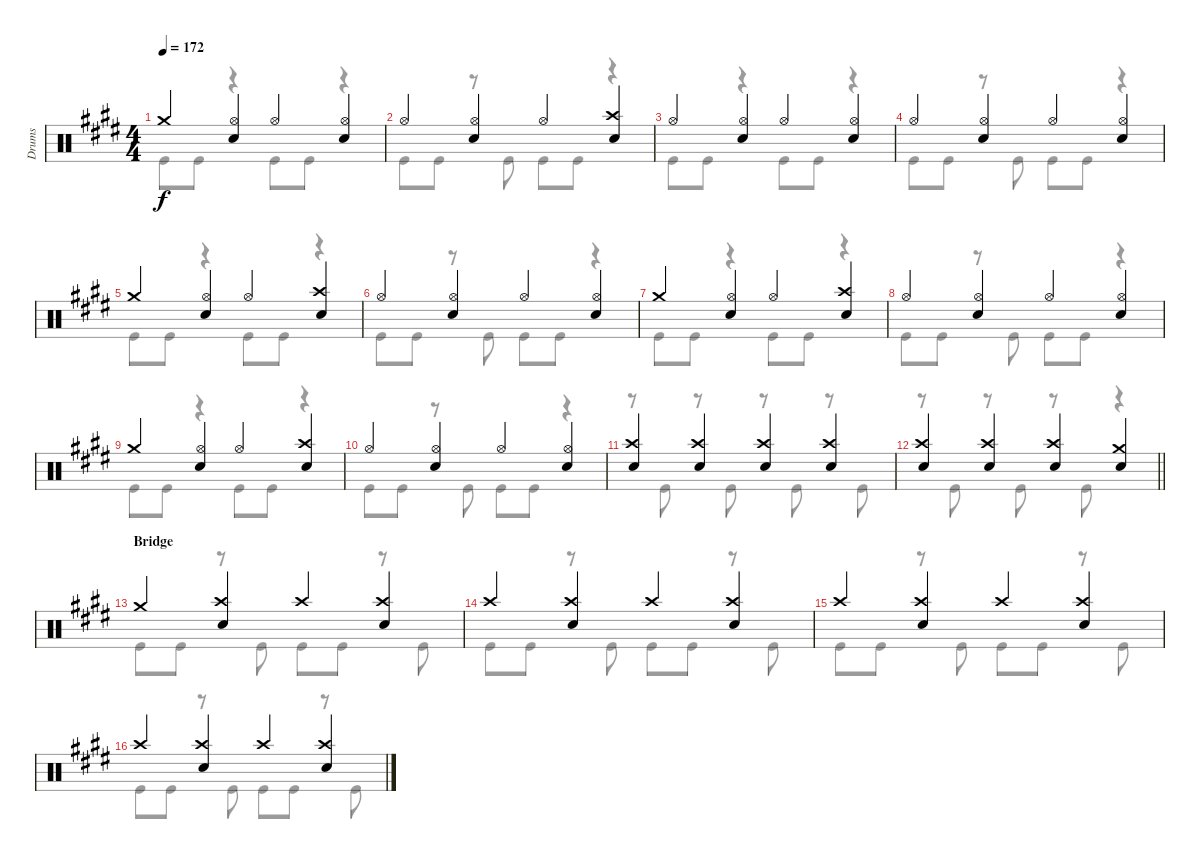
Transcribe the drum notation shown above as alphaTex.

\track ("Drums" "Drums") {instrument percussion}
\staff {score}
\articulation defaults
\voice
\ts (4 4)
\tempo 172
\clef neutral
\ks e "Crash medium (hit)".4{dy f}
("Hi-Hat (open)" "Electric Snare (hit)").4 "Hi-Hat (open)".4 ("Hi-Hat (open)" "Electric Snare (hit)").4 |
"Hi-Hat (open)".4 ("Hi-Hat (open)" "Electric Snare (hit)").4 "Hi-Hat (open)".4 ("Crash high (hit)" "Electric Snare (hit)").4 |
"Hi-Hat (open)".4 ("Hi-Hat (open)" "Electric Snare (hit)").4 "Hi-Hat (open)".4 ("Hi-Hat (open)" "Electric Snare (hit)").4 |
"Hi-Hat (open)".4 ("Hi-Hat (open)" "Electric Snare (hit)").4 "Hi-Hat (open)".4 ("Hi-Hat (open)" "Electric Snare (hit)").4 |
"Crash medium (hit)".4 ("Hi-Hat (open)" "Electric Snare (hit)").4 "Hi-Hat (open)".4 ("Crash high (hit)" "Electric Snare (hit)").4 |
"Hi-Hat (open)".4 ("Hi-Hat (open)" "Electric Snare (hit)").4 "Hi-Hat (open)".4 ("Hi-Hat (open)" "Electric Snare (hit)").4 |
"Crash medium (hit)".4 ("Hi-Hat (open)" "Electric Snare (hit)").4 "Hi-Hat (open)".4 ("Crash high (hit)" "Electric Snare (hit)").4 |
"Hi-Hat (open)".4 ("Hi-Hat (open)" "Electric Snare (hit)").4 "Hi-Hat (open)".4 ("Hi-Hat (open)" "Electric Snare (hit)").4 |
"Crash medium (hit)".4 ("Hi-Hat (open)" "Electric Snare (hit)").4 "Hi-Hat (open)".4 ("Crash high (hit)" "Electric Snare (hit)").4 |
"Hi-Hat (open)".4 ("Hi-Hat (open)" "Electric Snare (hit)").4 "Hi-Hat (open)".4 ("Hi-Hat (open)" "Electric Snare (hit)").4 |
("Crash high (hit)" "Electric Snare (hit)").4 ("Crash high (hit)" "Electric Snare (hit)").4 ("Crash high (hit)" "Electric Snare (hit)").4 ("Crash high (hit)" "Electric Snare (hit)").4 |
\barLineRight lightlight
("Crash high (hit)" "Electric Snare (hit)").4 ("Crash high (hit)" "Electric Snare (hit)").4 ("Crash high (hit)" "Electric Snare (hit)").4 ("Crash medium (hit)" "Electric Snare (hit)").4 |
\section ("" "Bridge")
"Crash medium (hit)".4 ("Crash high (hit)" "Electric Snare (hit)").4 "Crash high (hit)".4 ("Crash high (hit)" "Electric Snare (hit)").4 |
"Crash high (hit)".4 ("Crash high (hit)" "Electric Snare (hit)").4 "Crash high (hit)".4 ("Crash high (hit)" "Electric Snare (hit)").4 |
"Crash high (hit)".4 ("Crash high (hit)" "Electric Snare (hit)").4 "Crash high (hit)".4 ("Crash high (hit)" "Electric Snare (hit)").4 |
"Crash high (hit)".4 ("Crash high (hit)" "Electric Snare (hit)").4 "Crash high (hit)".4 ("Crash high (hit)" "Electric Snare (hit)").4
\voice
\clef neutral
\ottava regular
\simile none
\ks e "Kick (hit)".8{dy f} "Kick (hit)".8
r.4 "Kick (hit)".8 "Kick (hit)".8 r.4 |
"Kick (hit)".8 "Kick (hit)".8 r.8 "Kick (hit)".8 "Kick (hit)".8 "Kick (hit)".8 r.4 |
"Kick (hit)".8 "Kick (hit)".8 r.4 "Kick (hit)".8 "Kick (hit)".8 r.4 |
"Kick (hit)".8 "Kick (hit)".8 r.8 "Kick (hit)".8 "Kick (hit)".8 "Kick (hit)".8 r.4 |
"Kick (hit)".8 "Kick (hit)".8 r.4 "Kick (hit)".8 "Kick (hit)".8 r.4 |
"Kick (hit)".8 "Kick (hit)".8 r.8 "Kick (hit)".8 "Kick (hit)".8 "Kick (hit)".8 r.4 |
"Kick (hit)".8 "Kick (hit)".8 r.4 "Kick (hit)".8 "Kick (hit)".8 r.4 |
"Kick (hit)".8 "Kick (hit)".8 r.8 "Kick (hit)".8 "Kick (hit)".8 "Kick (hit)".8 r.4 |
"Kick (hit)".8 "Kick (hit)".8 r.4 "Kick (hit)".8 "Kick (hit)".8 r.4 |
"Kick (hit)".8 "Kick (hit)".8 r.8 "Kick (hit)".8 "Kick (hit)".8 "Kick (hit)".8 r.4 |
r.8 "Kick (hit)".8 r.8 "Kick (hit)".8 r.8 "Kick (hit)".8 r.8 "Kick (hit)".8 |
\barLineRight lightlight
r.8 "Kick (hit)".8 r.8 "Kick (hit)".8 r.8 "Kick (hit)".8 r.4 |
"Kick (hit)".8 "Kick (hit)".8 r.8 "Kick (hit)".8 "Kick (hit)".8 "Kick (hit)".8 r.8 "Kick (hit)".8 |
"Kick (hit)".8 "Kick (hit)".8 r.8 "Kick (hit)".8 "Kick (hit)".8 "Kick (hit)".8 r.8 "Kick (hit)".8 |
"Kick (hit)".8 "Kick (hit)".8 r.8 "Kick (hit)".8 "Kick (hit)".8 "Kick (hit)".8 r.8 "Kick (hit)".8 |
"Kick (hit)".8 "Kick (hit)".8 r.8 "Kick (hit)".8 "Kick (hit)".8 "Kick (hit)".8 r.8 "Kick (hit)".8
